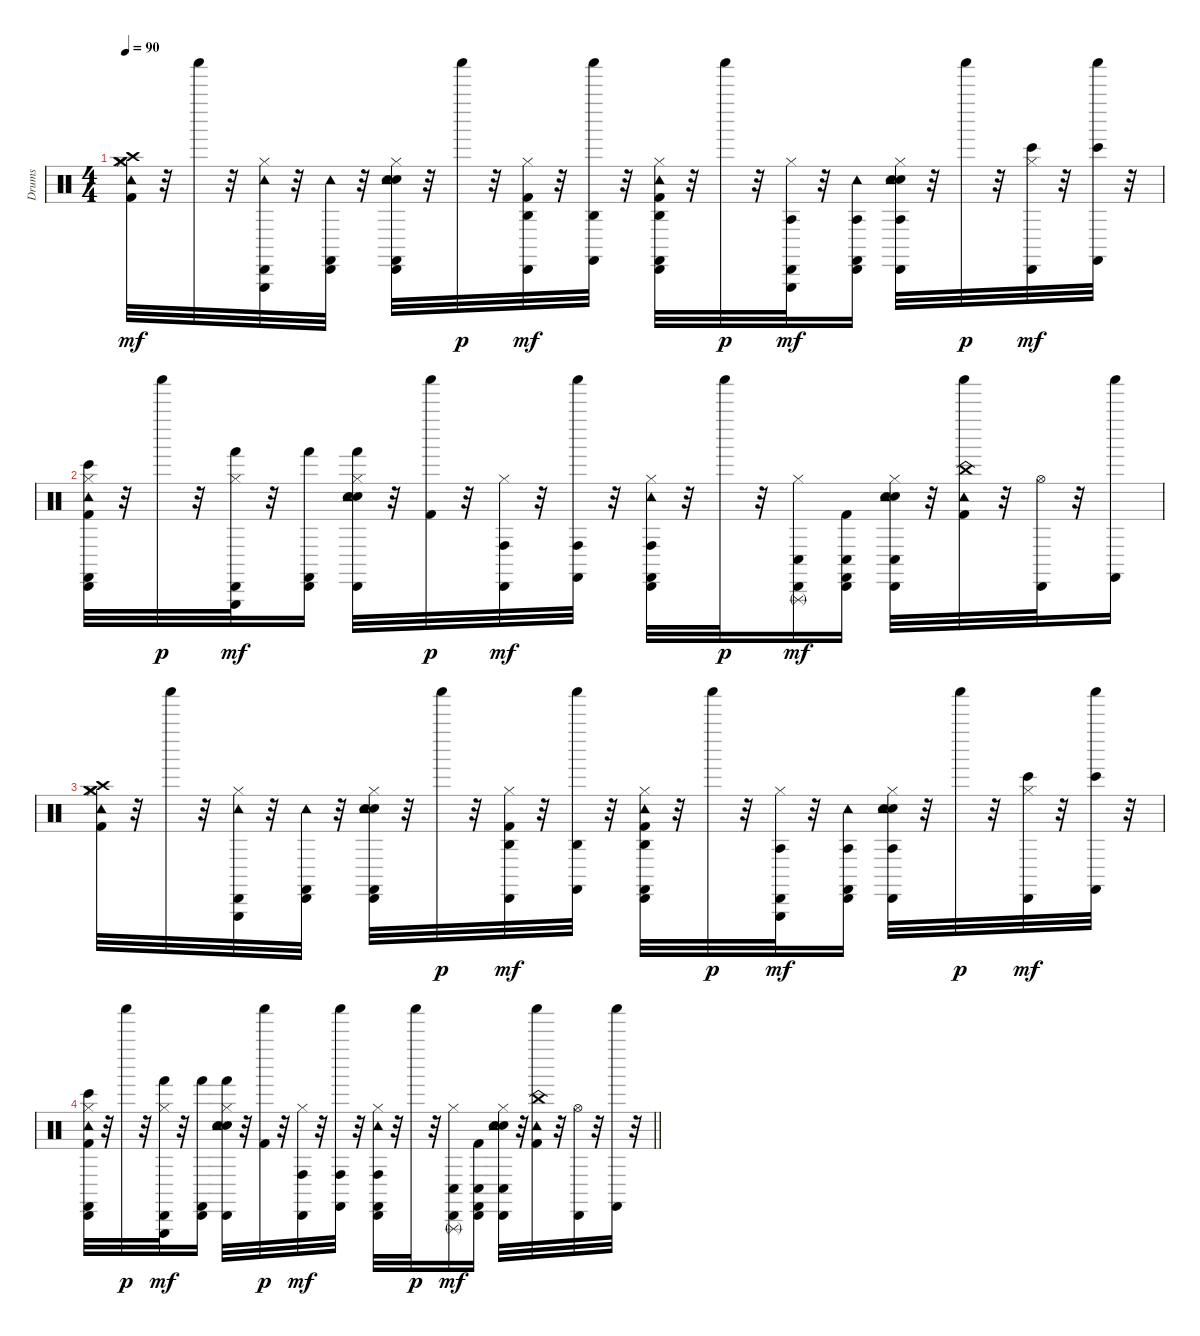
\track ("Drums" "Drums") {instrument percussion}
\staff {score}
\articulation defaults
\ts (4 4)
\tempo 90
\clef neutral
\ks c
("Hi-Hat (closed)" "Kick (hit) 2" "Tambourine (hit)" "Crash high (hit)" "Crash medium (hit)" "Hi-Hat (closed)").32{dy mf} r.32 "Shaker (hit)".32 r.32 ("Hi-Hat (closed)" "Tambourine (hit)" "Cabasa (hit)" "Triangle (hit)").32 r.32 ("Tambourine (hit)" "Cabasa (hit)" "Castanets (hit)").32 r.32 ("Electric Snare (hit)" "Hi-Hat (closed)" "Snare (hit) 2" "Tambourine (hit)" "Cabasa (hit)" "Castanets (hit)").32 r.32 "Shaker (hit)".32{dy p} r.32 ("Hi-Hat (closed)" "Kick (hit) 2" "Agogo high (hit)" "Cabasa (hit)").32{dy mf} r.32 ("Agogo high (hit)" "Shaker (hit)" "Castanets (hit)").32 r.32 ("Hi-Hat (closed)" "Kick (hit) 2" "Agogo high (hit)" "Cabasa (hit)" "Tambourine (hit)" "Castanets (hit)").32 r.32 "Shaker (hit)".32{dy p} r.32 ("Hi-Hat (closed)" "Agogo tow (hit)" "Cabasa (hit)" "Triangle (hit)").32{dy mf} r.32 ("Agogo tow (hit)" "Cabasa (hit)" "Tambourine (hit)" "Castanets (hit)").16 ("Electric Snare (hit)" "Hi-Hat (closed)" "Snare (hit) 2" "Agogo tow (hit)" "Tambourine (hit)" "Cabasa (hit)").32 r.32 "Shaker (hit)".32{dy p} r.32 ("Hi-Hat (closed)" "Bongo High (hit)" "Cabasa (hit)").32{dy mf} r.32 ("Bongo High (hit)" "Shaker (hit)" "Castanets (hit)").32 r.32 |
("Hi-Hat (closed)" "Kick (hit) 2" "Bongo High (hit)" "Cabasa (hit)" "Tambourine (hit)" "Castanets (hit)").32 r.32 "Shaker (hit)".32{dy p} r.32 ("Hi-Hat (closed)" "Hand (hit)" "Cabasa (hit)" "Triangle (hit)").32{dy mf} r.32 ("Hand (hit)" "Cabasa (hit)" "Castanets (hit)").16 ("Electric Snare (hit)" "Hi-Hat (closed)" "Snare (hit) 2" "Hand (hit)" "Cabasa (hit)" "Tambourine (hit)").32 r.32 ("Kick (hit) 2" "Shaker (hit)").32{dy p} r.32 ("Hi-Hat (closed)" "Conga high (hit)" "Cabasa (hit)").32{dy mf} r.32 ("Conga high (hit)" "Shaker (hit)" "Castanets (hit)").32 r.32 ("Hi-Hat (closed)" "Conga high (hit)" "Cabasa (hit)" "Tambourine (hit)" "Castanets (hit)").32 r.32 "Shaker (hit)".32{dy p} r.32 ("Hi-Hat (closed)" "Conga low (hit)" "Cabasa (hit)" "Triangle (rnute)").16{dy mf} ("Kick (hit) 2" "Conga low (hit)" "Cabasa (hit)" "Castanets (hit)").16 ("Electric Snare (hit)" "Hi-Hat (closed)" "Snare (hit) 2" "Conga low (hit)" "Cabasa (hit)" "Tambourine (hit)").32 r.32 ("Kick (hit) 2" "Tambourine (hit)" "Shaker (hit)" "China (hit)").32 r.32 ("Hi-Hat (open)" "Cabasa (hit)").32 r.32 ("Shaker (hit)" "Castanets (hit)").16 |
("Hi-Hat (closed)" "Kick (hit) 2" "Tambourine (hit)" "Crash high (hit)" "Crash medium (hit)" "Hi-Hat (closed)").32 r.32 "Shaker (hit)".32 r.32 ("Hi-Hat (closed)" "Tambourine (hit)" "Cabasa (hit)" "Triangle (hit)").32 r.32 ("Tambourine (hit)" "Cabasa (hit)" "Castanets (hit)").32 r.32 ("Electric Snare (hit)" "Hi-Hat (closed)" "Snare (hit) 2" "Tambourine (hit)" "Cabasa (hit)" "Castanets (hit)").32 r.32 "Shaker (hit)".32{dy p} r.32 ("Hi-Hat (closed)" "Kick (hit) 2" "Agogo high (hit)" "Cabasa (hit)").32{dy mf} r.32 ("Agogo high (hit)" "Shaker (hit)" "Castanets (hit)").32 r.32 ("Hi-Hat (closed)" "Kick (hit) 2" "Agogo high (hit)" "Cabasa (hit)" "Tambourine (hit)" "Castanets (hit)").32 r.32 "Shaker (hit)".32{dy p} r.32 ("Hi-Hat (closed)" "Agogo tow (hit)" "Cabasa (hit)" "Triangle (hit)").32{dy mf} r.32 ("Agogo tow (hit)" "Cabasa (hit)" "Tambourine (hit)" "Castanets (hit)").16 ("Electric Snare (hit)" "Hi-Hat (closed)" "Snare (hit) 2" "Agogo tow (hit)" "Tambourine (hit)" "Cabasa (hit)").32 r.32 "Shaker (hit)".32{dy p} r.32 ("Hi-Hat (closed)" "Bongo High (hit)" "Cabasa (hit)").32{dy mf} r.32 ("Bongo High (hit)" "Shaker (hit)" "Castanets (hit)").32 r.32 |
\barLineRight lightlight
("Hi-Hat (closed)" "Kick (hit) 2" "Bongo High (hit)" "Cabasa (hit)" "Tambourine (hit)" "Castanets (hit)").32 r.32 "Shaker (hit)".32{dy p} r.32 ("Hi-Hat (closed)" "Hand (hit)" "Cabasa (hit)" "Triangle (hit)").32{dy mf} r.32 ("Hand (hit)" "Cabasa (hit)" "Castanets (hit)").16 ("Electric Snare (hit)" "Hi-Hat (closed)" "Snare (hit) 2" "Hand (hit)" "Cabasa (hit)" "Tambourine (hit)").32 r.32 ("Kick (hit) 2" "Shaker (hit)").32{dy p} r.32 ("Hi-Hat (closed)" "Conga high (hit)" "Cabasa (hit)").32{dy mf} r.32 ("Conga high (hit)" "Shaker (hit)" "Castanets (hit)").32 r.32 ("Hi-Hat (closed)" "Conga high (hit)" "Cabasa (hit)" "Tambourine (hit)" "Castanets (hit)").32 r.32 "Shaker (hit)".32{dy p} r.32 ("Hi-Hat (closed)" "Conga low (hit)" "Cabasa (hit)" "Triangle (rnute)").16{dy mf} ("Kick (hit) 2" "Conga low (hit)" "Cabasa (hit)" "Castanets (hit)").16 ("Electric Snare (hit)" "Hi-Hat (closed)" "Snare (hit) 2" "Conga low (hit)" "Cabasa (hit)" "Tambourine (hit)").32 r.32 ("Kick (hit) 2" "Tambourine (hit)" "Shaker (hit)" "China (hit)").32 r.32 ("Hi-Hat (open)" "Cabasa (hit)").32 r.32 ("Shaker (hit)" "Castanets (hit)").32 r.32
